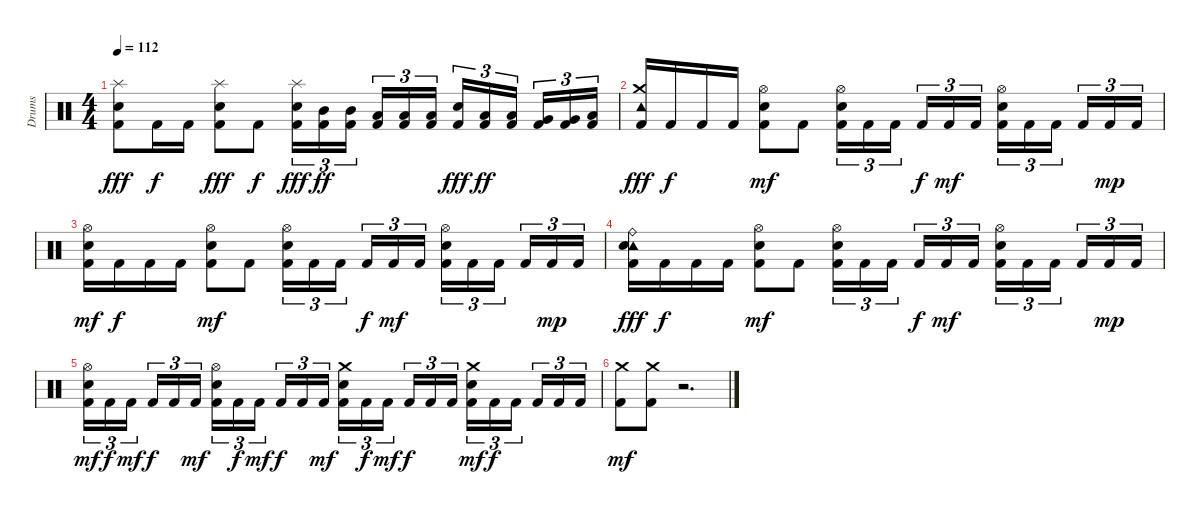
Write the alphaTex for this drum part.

\track ("Drums" "Drums") {instrument percussion}
\staff {score}
\articulation defaults
\ts (4 4)
\tempo 112
\clef neutral
\ks c
("Splash (hit)" "Electric Snare (hit)" "Kick (hit) 2").8{dy fff} "Kick (hit) 2".16{dy f} "Kick (hit) 2".16 ("Splash (hit)" "Electric Snare (hit)" "Kick (hit) 2").8{dy fff} "Kick (hit) 2".8{dy f} ("Splash (hit)" "Electric Snare (hit)" "Kick (hit) 2").16{tu (3 2) dy fff} ("Mid Tom (hit)" "Kick (hit) 2").16{tu (3 2) dy ff} ("Mid Tom (hit)" "Kick (hit) 2").16{tu (3 2) beam splitsecondary} ("Low Tom (hit)" "Kick (hit) 2").16{tu (3 2)} ("Low Tom (hit)" "Kick (hit) 2").16{tu (3 2)} ("Low Tom (hit)" "Kick (hit) 2").16{tu (3 2)} ("Electric Snare (hit)" "Kick (hit) 2").16{tu (3 2) dy fff} ("Low Tom (hit)" "Kick (hit) 2").16{tu (3 2) dy ff} ("Low Tom (hit)" "Kick (hit) 2").16{tu (3 2) beam splitsecondary} ("Very Low Tom (hit)" "Kick (hit) 2").16{tu (3 2)} ("Very Low Tom (hit)" "Kick (hit) 2").16{tu (3 2)} ("Low Floor Tom (hit)" "Kick (hit) 2").16{tu (3 2)} |
("Crash medium (hit)" "Tambourine (hit)" "Kick (hit) 2").16{dy fff} "Kick (hit) 2".16{dy f} "Kick (hit) 2".16 "Kick (hit) 2".16 ("Hi-Hat (open)" "Electric Snare (hit)" "Kick (hit) 2").8{dy mf} "Kick (hit) 2".8 ("Hi-Hat (open)" "Electric Snare (hit)" "Kick (hit) 2").16{tu (3 2)} "Kick (hit) 2".16{tu (3 2)} "Kick (hit) 2".16{tu (3 2) beam splitsecondary} "Kick (hit) 2".16{tu (3 2) dy f} "Kick (hit) 2".16{tu (3 2) dy mf} "Kick (hit) 2".16{tu (3 2)} ("Hi-Hat (open)" "Electric Snare (hit)" "Kick (hit) 2").16{tu (3 2)} "Kick (hit) 2".16{tu (3 2)} "Kick (hit) 2".16{tu (3 2) beam splitsecondary} "Kick (hit) 2".16{tu (3 2)} "Kick (hit) 2".16{tu (3 2) dy mp} "Kick (hit) 2".16{tu (3 2)} |
("Hi-Hat (open)" "Electric Snare (hit)" "Kick (hit) 2").16{dy mf} "Kick (hit) 2".16{dy f} "Kick (hit) 2".16 "Kick (hit) 2".16 ("Hi-Hat (open)" "Electric Snare (hit)" "Kick (hit) 2").8{dy mf} "Kick (hit) 2".8 ("Hi-Hat (open)" "Electric Snare (hit)" "Kick (hit) 2").16{tu (3 2)} "Kick (hit) 2".16{tu (3 2)} "Kick (hit) 2".16{tu (3 2) beam splitsecondary} "Kick (hit) 2".16{tu (3 2) dy f} "Kick (hit) 2".16{tu (3 2) dy mf} "Kick (hit) 2".16{tu (3 2)} ("Hi-Hat (open)" "Electric Snare (hit)" "Kick (hit) 2").16{tu (3 2)} "Kick (hit) 2".16{tu (3 2)} "Kick (hit) 2".16{tu (3 2) beam splitsecondary} "Kick (hit) 2".16{tu (3 2)} "Kick (hit) 2".16{tu (3 2) dy mp} "Kick (hit) 2".16{tu (3 2)} |
("Tambourine (hit)" "Ride (bell)" "Electric Snare (hit)" "Kick (hit) 2").16{dy fff} "Kick (hit) 2".16{dy f} "Kick (hit) 2".16 "Kick (hit) 2".16 ("Hi-Hat (open)" "Electric Snare (hit)" "Kick (hit) 2").8{dy mf} "Kick (hit) 2".8 ("Hi-Hat (open)" "Electric Snare (hit)" "Kick (hit) 2").16{tu (3 2)} "Kick (hit) 2".16{tu (3 2)} "Kick (hit) 2".16{tu (3 2) beam splitsecondary} "Kick (hit) 2".16{tu (3 2) dy f} "Kick (hit) 2".16{tu (3 2) dy mf} "Kick (hit) 2".16{tu (3 2)} ("Hi-Hat (open)" "Electric Snare (hit)" "Kick (hit) 2").16{tu (3 2)} "Kick (hit) 2".16{tu (3 2)} "Kick (hit) 2".16{tu (3 2) beam splitsecondary} "Kick (hit) 2".16{tu (3 2)} "Kick (hit) 2".16{tu (3 2) dy mp} "Kick (hit) 2".16{tu (3 2)} |
("Hi-Hat (open)" "Electric Snare (hit)" "Kick (hit) 2").16{tu (3 2) dy mf} "Kick (hit) 2".16{tu (3 2) dy f} "Kick (hit) 2".16{tu (3 2) dy mf beam splitsecondary} "Kick (hit) 2".16{tu (3 2) dy f} "Kick (hit) 2".16{tu (3 2)} "Kick (hit) 2".16{tu (3 2) dy mf} ("Hi-Hat (open)" "Electric Snare (hit)" "Kick (hit) 2").16{tu (3 2)} "Kick (hit) 2".16{tu (3 2) dy f} "Kick (hit) 2".16{tu (3 2) dy mf beam splitsecondary} "Kick (hit) 2".16{tu (3 2) dy f} "Kick (hit) 2".16{tu (3 2)} "Kick (hit) 2".16{tu (3 2) dy mf} ("Crash medium (hit)" "Electric Snare (hit)" "Kick (hit) 2").16{tu (3 2)} "Kick (hit) 2".16{tu (3 2) dy f} "Kick (hit) 2".16{tu (3 2) dy mf beam splitsecondary} "Kick (hit) 2".16{tu (3 2) dy f} "Kick (hit) 2".16{tu (3 2)} "Kick (hit) 2".16{tu (3 2)} ("Crash medium (hit)" "Electric Snare (hit)" "Kick (hit) 2").16{tu (3 2) dy mf} "Kick (hit) 2".16{tu (3 2) dy f} "Kick (hit) 2".16{tu (3 2) beam splitsecondary} "Kick (hit) 2".16{tu (3 2)} "Kick (hit) 2".16{tu (3 2)} "Kick (hit) 2".16{tu (3 2)} |
("Crash medium (hit)" "Kick (hit) 2").8{dy mf} ("Crash medium (hit)" "Kick (hit) 2").8 r.2{d}
